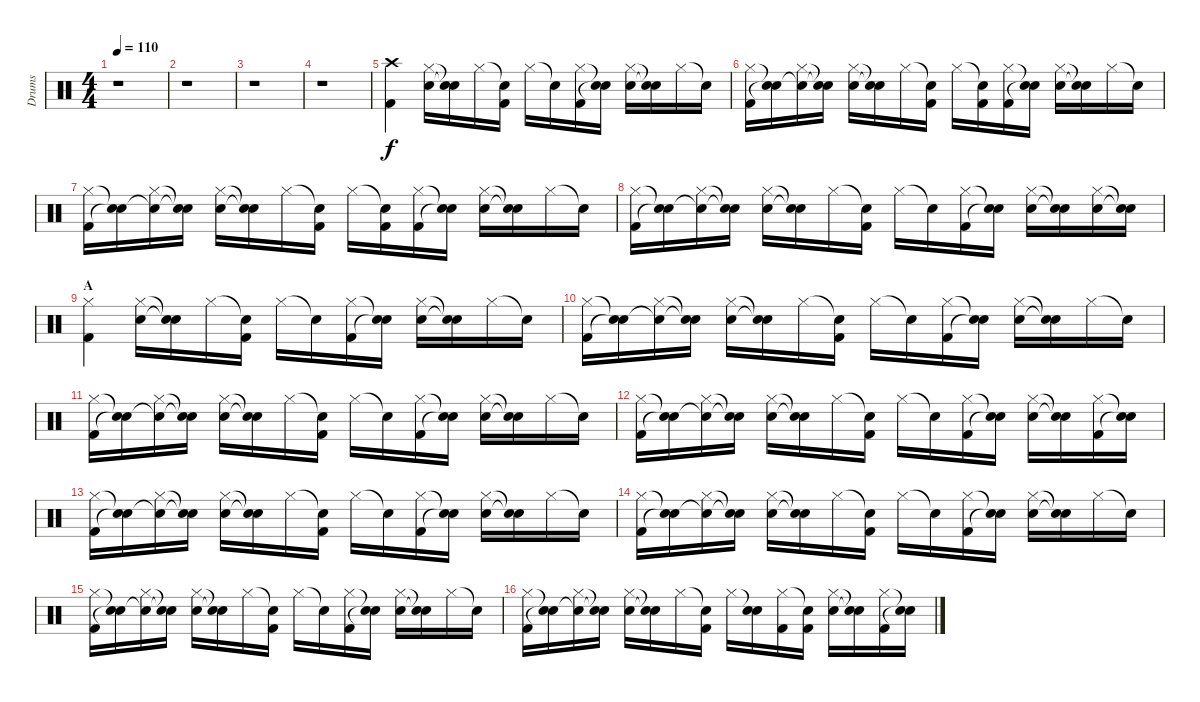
\track ("Drums" "Drums") {instrument percussion}
\staff {score}
\articulation defaults
\ts (4 4)
\tempo 110
\clef neutral
\ks c
r.1{dy f} |
r.1 |
r.1 |
r.1 |
("Crash high (hit)" "Kick (hit) 2").4 ("Hi-Hat (closed)" "Snare (hit) 2").16 ("Snare (hit)"{t} "Snare (hit)"{t}).16 "Hi-Hat (closed)".16 ("Snare (hit)"{t} "Kick (hit) 2").16 "Hi-Hat (closed)".16 "Snare (hit)"{t}.16 ("Hi-Hat (closed)" "Kick (hit) 2").16 ("Snare (hit)"{t} "Snare (hit)"{t}).16 ("Hi-Hat (closed)" "Snare (hit) 2").16 ("Snare (hit)"{t} "Snare (hit)"{t}).16 "Hi-Hat (closed)".16 "Snare (hit)"{t}.16 |
("Hi-Hat (closed)" "Kick (hit) 2").16 ("Snare (hit)"{t} "Snare (hit)"{t}).16 ("Hi-Hat (closed)" "Snare (hit)"{t}).16 ("Snare (hit)"{t} "Snare (hit)"{t}).16 ("Hi-Hat (closed)" "Snare (hit) 2").16 ("Snare (hit)"{t} "Snare (hit)"{t}).16 "Hi-Hat (closed)".16 ("Snare (hit)"{t} "Kick (hit) 2").16 "Hi-Hat (closed)".16 ("Snare (hit)"{t} "Kick (hit) 2").16 ("Hi-Hat (closed)" "Kick (hit) 2").16 ("Snare (hit)"{t} "Snare (hit)"{t}).16 ("Hi-Hat (closed)" "Snare (hit) 2").16 ("Snare (hit)"{t} "Snare (hit)"{t}).16 "Hi-Hat (closed)".16 "Snare (hit)"{t}.16 |
("Hi-Hat (closed)" "Kick (hit) 2").16 ("Snare (hit)"{t} "Snare (hit)"{t}).16 ("Hi-Hat (closed)" "Snare (hit)"{t}).16 ("Snare (hit)"{t} "Snare (hit)"{t}).16 ("Hi-Hat (closed)" "Snare (hit) 2").16 ("Snare (hit)"{t} "Snare (hit)"{t}).16 "Hi-Hat (closed)".16 ("Snare (hit)"{t} "Kick (hit) 2").16 "Hi-Hat (closed)".16 ("Snare (hit)"{t} "Kick (hit) 2").16 ("Hi-Hat (closed)" "Kick (hit) 2").16 ("Snare (hit)"{t} "Snare (hit)"{t}).16 ("Hi-Hat (closed)" "Snare (hit) 2").16 ("Snare (hit)"{t} "Snare (hit)"{t}).16 "Hi-Hat (closed)".16 "Snare (hit)"{t}.16 |
("Hi-Hat (closed)" "Kick (hit) 2").16 ("Snare (hit)"{t} "Snare (hit)"{t}).16 ("Hi-Hat (closed)" "Snare (hit)"{t}).16 ("Snare (hit)"{t} "Snare (hit)"{t}).16 ("Hi-Hat (closed)" "Snare (hit) 2").16 ("Snare (hit)"{t} "Snare (hit)"{t}).16 "Hi-Hat (closed)".16 ("Snare (hit)"{t} "Kick (hit) 2").16 "Hi-Hat (closed)".16 "Snare (hit)"{t}.16 ("Hi-Hat (closed)" "Kick (hit) 2").16 ("Snare (hit)"{t} "Snare (hit)"{t}).16 ("Hi-Hat (closed)" "Snare (hit) 2").16 ("Snare (hit)"{t} "Snare (hit)"{t}).16 ("Hi-Hat (closed)" "Snare (hit) 2").16 ("Snare (hit)"{t} "Snare (hit)"{t}).16 |
\section ("" "A")
("Hi-Hat (closed)" "Kick (hit) 2").4 ("Hi-Hat (closed)" "Snare (hit) 2").16 ("Snare (hit)"{t} "Snare (hit)"{t}).16 "Hi-Hat (closed)".16 ("Snare (hit)"{t} "Kick (hit) 2").16 "Hi-Hat (closed)".16 "Snare (hit)"{t}.16 ("Hi-Hat (closed)" "Kick (hit) 2").16 ("Snare (hit)"{t} "Snare (hit)"{t}).16 ("Hi-Hat (closed)" "Snare (hit) 2").16 ("Snare (hit)"{t} "Snare (hit)"{t}).16 "Hi-Hat (closed)".16 "Snare (hit)"{t}.16 |
("Hi-Hat (closed)" "Kick (hit) 2").16 ("Snare (hit)"{t} "Snare (hit)"{t}).16 ("Hi-Hat (closed)" "Snare (hit)"{t}).16 ("Snare (hit)"{t} "Snare (hit)"{t}).16 ("Hi-Hat (closed)" "Snare (hit) 2").16 ("Snare (hit)"{t} "Snare (hit)"{t}).16 "Hi-Hat (closed)".16 ("Snare (hit)"{t} "Kick (hit) 2").16 "Hi-Hat (closed)".16 "Snare (hit)"{t}.16 ("Hi-Hat (closed)" "Kick (hit) 2").16 ("Snare (hit)"{t} "Snare (hit)"{t}).16 ("Hi-Hat (closed)" "Snare (hit) 2").16 ("Snare (hit)"{t} "Snare (hit)"{t}).16 "Hi-Hat (closed)".16 "Snare (hit)"{t}.16 |
("Hi-Hat (closed)" "Kick (hit) 2").16 ("Snare (hit)"{t} "Snare (hit)"{t}).16 ("Hi-Hat (closed)" "Snare (hit)"{t}).16 ("Snare (hit)"{t} "Snare (hit)"{t}).16 ("Hi-Hat (closed)" "Snare (hit) 2").16 ("Snare (hit)"{t} "Snare (hit)"{t}).16 "Hi-Hat (closed)".16 ("Snare (hit)"{t} "Kick (hit) 2").16 "Hi-Hat (closed)".16 "Snare (hit)"{t}.16 ("Hi-Hat (closed)" "Kick (hit) 2").16 ("Snare (hit)"{t} "Snare (hit)"{t}).16 ("Hi-Hat (closed)" "Snare (hit) 2").16 ("Snare (hit)"{t} "Snare (hit)"{t}).16 "Hi-Hat (closed)".16 "Snare (hit)"{t}.16 |
("Hi-Hat (closed)" "Kick (hit) 2").16 ("Snare (hit)"{t} "Snare (hit)"{t}).16 ("Hi-Hat (closed)" "Snare (hit)"{t}).16 ("Snare (hit)"{t} "Snare (hit)"{t}).16 ("Hi-Hat (closed)" "Snare (hit) 2").16 ("Snare (hit)"{t} "Snare (hit)"{t}).16 "Hi-Hat (closed)".16 ("Snare (hit)"{t} "Kick (hit) 2").16 "Hi-Hat (closed)".16 "Snare (hit)"{t}.16 ("Hi-Hat (closed)" "Kick (hit) 2").16 ("Snare (hit)"{t} "Snare (hit)"{t}).16 ("Hi-Hat (closed)" "Snare (hit) 2").16 ("Snare (hit)"{t} "Snare (hit)"{t}).16 ("Hi-Hat (closed)" "Kick (hit) 2").16 ("Snare (hit)"{t} "Snare (hit)"{t}).16 |
("Hi-Hat (closed)" "Kick (hit) 2").16 ("Snare (hit)"{t} "Snare (hit)"{t}).16 ("Hi-Hat (closed)" "Snare (hit)"{t}).16 ("Snare (hit)"{t} "Snare (hit)"{t}).16 ("Hi-Hat (closed)" "Snare (hit) 2").16 ("Snare (hit)"{t} "Snare (hit)"{t}).16 "Hi-Hat (closed)".16 ("Snare (hit)"{t} "Kick (hit) 2").16 "Hi-Hat (closed)".16 "Snare (hit)"{t}.16 ("Hi-Hat (closed)" "Kick (hit) 2").16 ("Snare (hit)"{t} "Snare (hit)"{t}).16 ("Hi-Hat (closed)" "Snare (hit) 2").16 ("Snare (hit)"{t} "Snare (hit)"{t}).16 "Hi-Hat (closed)".16 "Snare (hit)"{t}.16 |
("Hi-Hat (closed)" "Kick (hit) 2").16 ("Snare (hit)"{t} "Snare (hit)"{t}).16 ("Hi-Hat (closed)" "Snare (hit)"{t}).16 ("Snare (hit)"{t} "Snare (hit)"{t}).16 ("Hi-Hat (closed)" "Snare (hit) 2").16 ("Snare (hit)"{t} "Snare (hit)"{t}).16 "Hi-Hat (closed)".16 ("Snare (hit)"{t} "Kick (hit) 2").16 "Hi-Hat (closed)".16 "Snare (hit)"{t}.16 ("Hi-Hat (closed)" "Kick (hit) 2").16 ("Snare (hit)"{t} "Snare (hit)"{t}).16 ("Hi-Hat (closed)" "Snare (hit) 2").16 ("Snare (hit)"{t} "Snare (hit)"{t}).16 "Hi-Hat (closed)".16 "Snare (hit)"{t}.16 |
("Hi-Hat (closed)" "Kick (hit) 2").16 ("Snare (hit)"{t} "Snare (hit)"{t}).16 ("Hi-Hat (closed)" "Snare (hit)"{t}).16 ("Snare (hit)"{t} "Snare (hit)"{t}).16 ("Hi-Hat (closed)" "Snare (hit) 2").16 ("Snare (hit)"{t} "Snare (hit)"{t}).16 "Hi-Hat (closed)".16 ("Snare (hit)"{t} "Kick (hit) 2").16 "Hi-Hat (closed)".16 "Snare (hit)"{t}.16 ("Hi-Hat (closed)" "Kick (hit) 2").16 ("Snare (hit)"{t} "Snare (hit)"{t}).16 ("Hi-Hat (closed)" "Snare (hit) 2").16 ("Snare (hit)"{t} "Snare (hit)"{t}).16 "Hi-Hat (closed)".16 "Snare (hit)"{t}.16 |
("Hi-Hat (closed)" "Kick (hit) 2").16 ("Snare (hit)"{t} "Snare (hit)"{t}).16 ("Hi-Hat (closed)" "Snare (hit)"{t}).16 ("Snare (hit)"{t} "Snare (hit)"{t}).16 ("Hi-Hat (closed)" "Snare (hit) 2").16 ("Snare (hit)"{t} "Snare (hit)"{t}).16 "Hi-Hat (closed)".16 ("Snare (hit)"{t} "Kick (hit) 2").16 "Hi-Hat (closed)".16 ("Snare (hit)"{t} "Snare (hit) 2").16 ("Hi-Hat (closed)" "Kick (hit) 2").16 ("Snare (hit)"{t} "Kick (hit) 2").16 ("Hi-Hat (closed)" "Snare (hit) 2").16 ("Snare (hit)"{t} "Snare (hit)"{t}).16 ("Hi-Hat (closed)" "Kick (hit) 2").16 ("Snare (hit)"{t} "Snare (hit)"{t}).16
